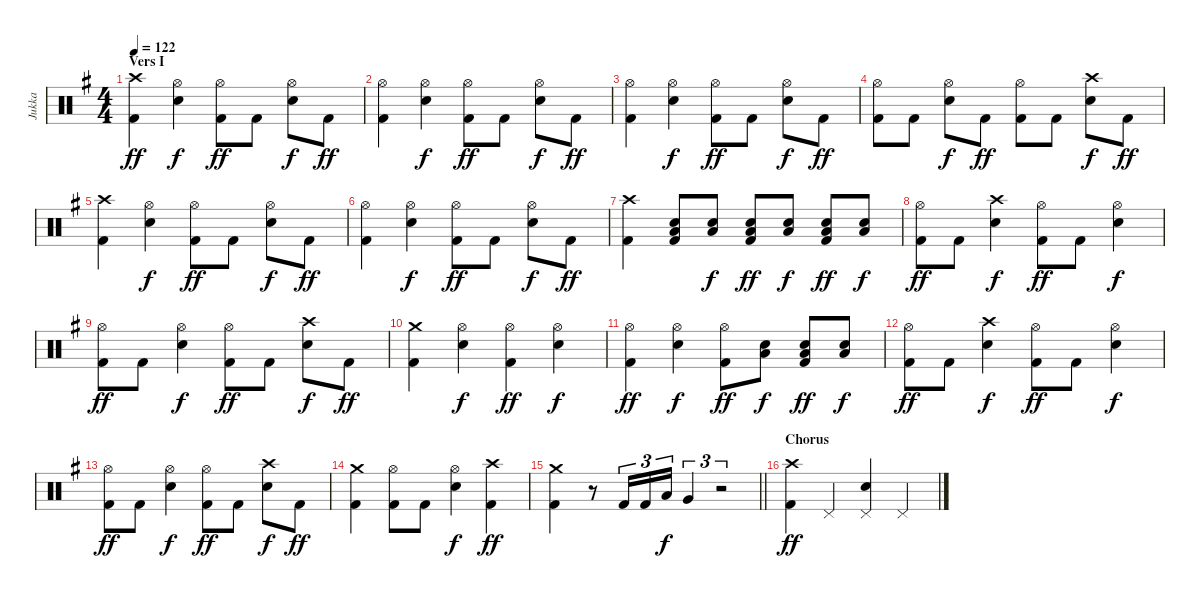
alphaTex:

\track ("Jukka" "Jukka") {instrument percussion}
\staff {score}
\articulation defaults
\ts (4 4)
\section ("" "Vers I")
\tempo 122
\clef neutral
\ks g
("Crash high (hit)" "Kick (hit) 2").4{dy ff} ("Hi-Hat (open)" "Electric Snare (hit)").4{dy f} ("Hi-Hat (open)" "Kick (hit) 2").8{dy ff} "Kick (hit) 2".8 ("Hi-Hat (open)" "Electric Snare (hit)").8{dy f} "Kick (hit) 2".8{dy ff} |
("Hi-Hat (open)" "Kick (hit) 2").4 ("Hi-Hat (open)" "Electric Snare (hit)").4{dy f} ("Hi-Hat (open)" "Kick (hit) 2").8{dy ff} "Kick (hit) 2".8 ("Hi-Hat (open)" "Electric Snare (hit)").8{dy f} "Kick (hit) 2".8{dy ff} |
("Hi-Hat (open)" "Kick (hit) 2").4 ("Hi-Hat (open)" "Electric Snare (hit)").4{dy f} ("Hi-Hat (open)" "Kick (hit) 2").8{dy ff} "Kick (hit) 2".8 ("Hi-Hat (open)" "Electric Snare (hit)").8{dy f} "Kick (hit) 2".8{dy ff} |
("Hi-Hat (open)" "Kick (hit) 2").8 "Kick (hit) 2".8 ("Hi-Hat (open)" "Electric Snare (hit)").8{dy f} "Kick (hit) 2".8{dy ff} ("Hi-Hat (open)" "Kick (hit) 2").8 "Kick (hit) 2".8 ("Crash high (hit)" "Electric Snare (hit)").8{dy f} "Kick (hit) 2".8{dy ff} |
("Crash high (hit)" "Kick (hit) 2").4 ("Hi-Hat (open)" "Electric Snare (hit)").4{dy f} ("Hi-Hat (open)" "Kick (hit) 2").8{dy ff} "Kick (hit) 2".8 ("Hi-Hat (open)" "Electric Snare (hit)").8{dy f} "Kick (hit) 2".8{dy ff} |
("Hi-Hat (open)" "Kick (hit) 2").4 ("Hi-Hat (open)" "Electric Snare (hit)").4{dy f} ("Hi-Hat (open)" "Kick (hit) 2").8{dy ff} "Kick (hit) 2".8 ("Hi-Hat (open)" "Electric Snare (hit)").8{dy f} "Kick (hit) 2".8{dy ff} |
("Crash high (hit)" "Kick (hit) 2").4 ("Low Floor Tom (hit)" "Electric Snare (hit)" "Kick (hit) 2").8 ("Low Floor Tom (hit)" "Electric Snare (hit)").8{dy f} ("Low Floor Tom (hit)" "Electric Snare (hit)" "Kick (hit) 2").8{dy ff} ("Low Floor Tom (hit)" "Electric Snare (hit)").8{dy f} ("Low Floor Tom (hit)" "Electric Snare (hit)" "Kick (hit) 2").8{dy ff} ("Low Floor Tom (hit)" "Electric Snare (hit)").8{dy f} |
("Hi-Hat (open)" "Kick (hit) 2").8{dy ff} "Kick (hit) 2".8 ("Crash high (hit)" "Electric Snare (hit)").4{dy f} ("Hi-Hat (open)" "Kick (hit) 2").8{dy ff} "Kick (hit) 2".8 ("Hi-Hat (open)" "Electric Snare (hit)").4{dy f} |
("Hi-Hat (open)" "Kick (hit) 2").8{dy ff} "Kick (hit) 2".8 ("Hi-Hat (open)" "Electric Snare (hit)").4{dy f} ("Hi-Hat (open)" "Kick (hit) 2").8{dy ff} "Kick (hit) 2".8 ("Crash high (hit)" "Electric Snare (hit)").8{dy f} "Kick (hit) 2".8{dy ff} |
("Crash medium (hit)" "Kick (hit) 2").4 ("Hi-Hat (open)" "Electric Snare (hit)").4{dy f} ("Hi-Hat (open)" "Kick (hit) 2").4{dy ff} ("Hi-Hat (open)" "Electric Snare (hit)").4{dy f} |
("Hi-Hat (open)" "Kick (hit) 2").4{dy ff} ("Hi-Hat (open)" "Electric Snare (hit)").4{dy f} ("Hi-Hat (open)" "Kick (hit) 2").8{dy ff} ("Low Floor Tom (hit)" "Electric Snare (hit)").8{dy f} ("Low Floor Tom (hit)" "Electric Snare (hit)" "Kick (hit) 2").8{dy ff} ("Low Floor Tom (hit)" "Electric Snare (hit)").8{dy f} |
("Hi-Hat (open)" "Kick (hit) 2").8{dy ff} "Kick (hit) 2".8 ("Crash high (hit)" "Electric Snare (hit)").4{dy f} ("Hi-Hat (open)" "Kick (hit) 2").8{dy ff} "Kick (hit) 2".8 ("Hi-Hat (open)" "Electric Snare (hit)").4{dy f} |
("Hi-Hat (open)" "Kick (hit) 2").8{dy ff} "Kick (hit) 2".8 ("Hi-Hat (open)" "Electric Snare (hit)").4{dy f} ("Hi-Hat (open)" "Kick (hit) 2").8{dy ff} "Kick (hit) 2".8 ("Crash high (hit)" "Electric Snare (hit)").8{dy f} "Kick (hit) 2".8{dy ff} |
("Crash medium (hit)" "Kick (hit) 2").4 ("Hi-Hat (open)" "Kick (hit) 2").8 "Kick (hit) 2".8 ("Hi-Hat (open)" "Electric Snare (hit)").4{dy f} ("Crash high (hit)" "Kick (hit) 2").4{dy ff} |
\barLineRight lightlight
("Crash medium (hit)" "Kick (hit) 2").4 r.8 "Kick (hit) 2".16{tu (3 2)} "Kick (hit) 2".16{tu (3 2)} "Low Floor Tom (hit)".16{tu (3 2) dy f} "Very Low Tom (hit)".4{tu (3 2)} r.2{tu (3 2)} |
\section ("" "Chorus")
("Crash high (hit)" "Kick (hit) 2").4{dy ff} "Pedal Hi-Hat (hit)".4 ("Pedal Hi-Hat (hit)" "Electric Snare (hit)").4 "Pedal Hi-Hat (hit)".4
